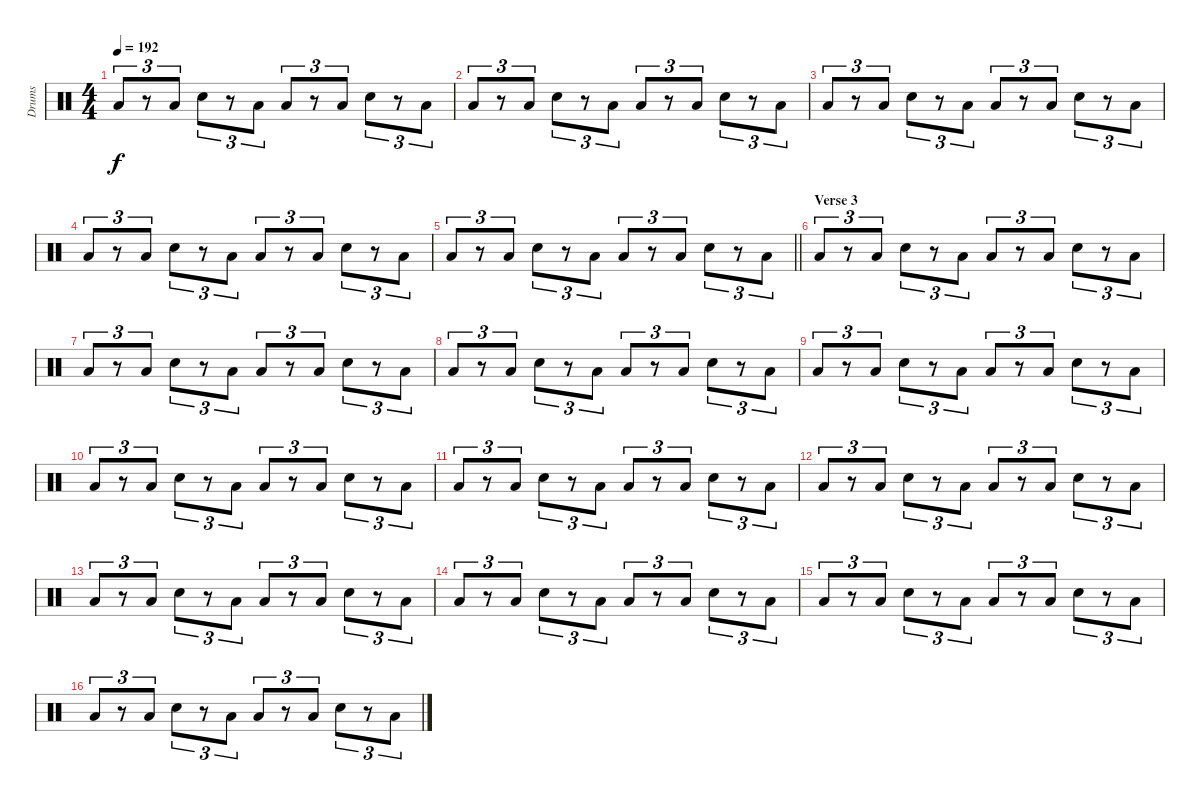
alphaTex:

\track ("Drums" "Drums") {instrument percussion}
\staff {score}
\articulation defaults
\ts (4 4)
\tempo 192
\clef neutral
\ks c "Low Floor Tom (hit)".8{tu (3 2) dy f}
r.8{tu (3 2)} "Low Tom (hit)".8{tu (3 2)} "Snare (hit) 2".8{tu (3 2)} r.8{tu (3 2)} "Low Tom (hit)".8{tu (3 2)} "Low Floor Tom (hit)".8{tu (3 2)} r.8{tu (3 2)} "Low Tom (hit)".8{tu (3 2)} "Snare (hit) 2".8{tu (3 2)} r.8{tu (3 2)} "Low Tom (hit)".8{tu (3 2)} |
"Low Floor Tom (hit)".8{tu (3 2)} r.8{tu (3 2)} "Low Tom (hit)".8{tu (3 2)} "Snare (hit) 2".8{tu (3 2)} r.8{tu (3 2)} "Low Tom (hit)".8{tu (3 2)} "Low Floor Tom (hit)".8{tu (3 2)} r.8{tu (3 2)} "Low Tom (hit)".8{tu (3 2)} "Snare (hit) 2".8{tu (3 2)} r.8{tu (3 2)} "Low Tom (hit)".8{tu (3 2)} |
"Low Floor Tom (hit)".8{tu (3 2)} r.8{tu (3 2)} "Low Tom (hit)".8{tu (3 2)} "Snare (hit) 2".8{tu (3 2)} r.8{tu (3 2)} "Low Tom (hit)".8{tu (3 2)} "Low Floor Tom (hit)".8{tu (3 2)} r.8{tu (3 2)} "Low Tom (hit)".8{tu (3 2)} "Snare (hit) 2".8{tu (3 2)} r.8{tu (3 2)} "Low Tom (hit)".8{tu (3 2)} |
"Low Floor Tom (hit)".8{tu (3 2)} r.8{tu (3 2)} "Low Tom (hit)".8{tu (3 2)} "Snare (hit) 2".8{tu (3 2)} r.8{tu (3 2)} "Low Tom (hit)".8{tu (3 2)} "Low Floor Tom (hit)".8{tu (3 2)} r.8{tu (3 2)} "Low Tom (hit)".8{tu (3 2)} "Snare (hit) 2".8{tu (3 2)} r.8{tu (3 2)} "Low Tom (hit)".8{tu (3 2)} |
\barLineRight lightlight "Low Floor Tom (hit)".8{tu (3 2)}
r.8{tu (3 2)} "Low Tom (hit)".8{tu (3 2)} "Snare (hit) 2".8{tu (3 2)} r.8{tu (3 2)} "Low Tom (hit)".8{tu (3 2)} "Low Floor Tom (hit)".8{tu (3 2)} r.8{tu (3 2)} "Low Tom (hit)".8{tu (3 2)} "Snare (hit) 2".8{tu (3 2)} r.8{tu (3 2)} "Low Tom (hit)".8{tu (3 2)} |
\section ("" "Verse 3")
"Low Floor Tom (hit)".8{tu (3 2)} r.8{tu (3 2)} "Low Tom (hit)".8{tu (3 2)} "Snare (hit) 2".8{tu (3 2)} r.8{tu (3 2)} "Low Tom (hit)".8{tu (3 2)} "Low Floor Tom (hit)".8{tu (3 2)} r.8{tu (3 2)} "Low Tom (hit)".8{tu (3 2)} "Snare (hit) 2".8{tu (3 2)} r.8{tu (3 2)} "Low Tom (hit)".8{tu (3 2)} |
"Low Floor Tom (hit)".8{tu (3 2)} r.8{tu (3 2)} "Low Tom (hit)".8{tu (3 2)} "Snare (hit) 2".8{tu (3 2)} r.8{tu (3 2)} "Low Tom (hit)".8{tu (3 2)} "Low Floor Tom (hit)".8{tu (3 2)} r.8{tu (3 2)} "Low Tom (hit)".8{tu (3 2)} "Snare (hit) 2".8{tu (3 2)} r.8{tu (3 2)} "Low Tom (hit)".8{tu (3 2)} |
"Low Floor Tom (hit)".8{tu (3 2)} r.8{tu (3 2)} "Low Tom (hit)".8{tu (3 2)} "Snare (hit) 2".8{tu (3 2)} r.8{tu (3 2)} "Low Tom (hit)".8{tu (3 2)} "Low Floor Tom (hit)".8{tu (3 2)} r.8{tu (3 2)} "Low Tom (hit)".8{tu (3 2)} "Snare (hit) 2".8{tu (3 2)} r.8{tu (3 2)} "Low Tom (hit)".8{tu (3 2)} |
"Low Floor Tom (hit)".8{tu (3 2)} r.8{tu (3 2)} "Low Tom (hit)".8{tu (3 2)} "Snare (hit) 2".8{tu (3 2)} r.8{tu (3 2)} "Low Tom (hit)".8{tu (3 2)} "Low Floor Tom (hit)".8{tu (3 2)} r.8{tu (3 2)} "Low Tom (hit)".8{tu (3 2)} "Snare (hit) 2".8{tu (3 2)} r.8{tu (3 2)} "Low Tom (hit)".8{tu (3 2)} |
"Low Floor Tom (hit)".8{tu (3 2)} r.8{tu (3 2)} "Low Tom (hit)".8{tu (3 2)} "Snare (hit) 2".8{tu (3 2)} r.8{tu (3 2)} "Low Tom (hit)".8{tu (3 2)} "Low Floor Tom (hit)".8{tu (3 2)} r.8{tu (3 2)} "Low Tom (hit)".8{tu (3 2)} "Snare (hit) 2".8{tu (3 2)} r.8{tu (3 2)} "Low Tom (hit)".8{tu (3 2)} |
"Low Floor Tom (hit)".8{tu (3 2)} r.8{tu (3 2)} "Low Tom (hit)".8{tu (3 2)} "Snare (hit) 2".8{tu (3 2)} r.8{tu (3 2)} "Low Tom (hit)".8{tu (3 2)} "Low Floor Tom (hit)".8{tu (3 2)} r.8{tu (3 2)} "Low Tom (hit)".8{tu (3 2)} "Snare (hit) 2".8{tu (3 2)} r.8{tu (3 2)} "Low Tom (hit)".8{tu (3 2)} |
"Low Floor Tom (hit)".8{tu (3 2)} r.8{tu (3 2)} "Low Tom (hit)".8{tu (3 2)} "Snare (hit) 2".8{tu (3 2)} r.8{tu (3 2)} "Low Tom (hit)".8{tu (3 2)} "Low Floor Tom (hit)".8{tu (3 2)} r.8{tu (3 2)} "Low Tom (hit)".8{tu (3 2)} "Snare (hit) 2".8{tu (3 2)} r.8{tu (3 2)} "Low Tom (hit)".8{tu (3 2)} |
"Low Floor Tom (hit)".8{tu (3 2)} r.8{tu (3 2)} "Low Tom (hit)".8{tu (3 2)} "Snare (hit) 2".8{tu (3 2)} r.8{tu (3 2)} "Low Tom (hit)".8{tu (3 2)} "Low Floor Tom (hit)".8{tu (3 2)} r.8{tu (3 2)} "Low Tom (hit)".8{tu (3 2)} "Snare (hit) 2".8{tu (3 2)} r.8{tu (3 2)} "Low Tom (hit)".8{tu (3 2)} |
"Low Floor Tom (hit)".8{tu (3 2)} r.8{tu (3 2)} "Low Tom (hit)".8{tu (3 2)} "Snare (hit) 2".8{tu (3 2)} r.8{tu (3 2)} "Low Tom (hit)".8{tu (3 2)} "Low Floor Tom (hit)".8{tu (3 2)} r.8{tu (3 2)} "Low Tom (hit)".8{tu (3 2)} "Snare (hit) 2".8{tu (3 2)} r.8{tu (3 2)} "Low Tom (hit)".8{tu (3 2)} |
"Low Floor Tom (hit)".8{tu (3 2)} r.8{tu (3 2)} "Low Tom (hit)".8{tu (3 2)} "Snare (hit) 2".8{tu (3 2)} r.8{tu (3 2)} "Low Tom (hit)".8{tu (3 2)} "Low Floor Tom (hit)".8{tu (3 2)} r.8{tu (3 2)} "Low Tom (hit)".8{tu (3 2)} "Snare (hit) 2".8{tu (3 2)} r.8{tu (3 2)} "Low Tom (hit)".8{tu (3 2)} |
"Low Floor Tom (hit)".8{tu (3 2)} r.8{tu (3 2)} "Low Tom (hit)".8{tu (3 2)} "Snare (hit) 2".8{tu (3 2)} r.8{tu (3 2)} "Low Tom (hit)".8{tu (3 2)} "Low Floor Tom (hit)".8{tu (3 2)} r.8{tu (3 2)} "Low Tom (hit)".8{tu (3 2)} "Snare (hit) 2".8{tu (3 2)} r.8{tu (3 2)} "Low Tom (hit)".8{tu (3 2)}
